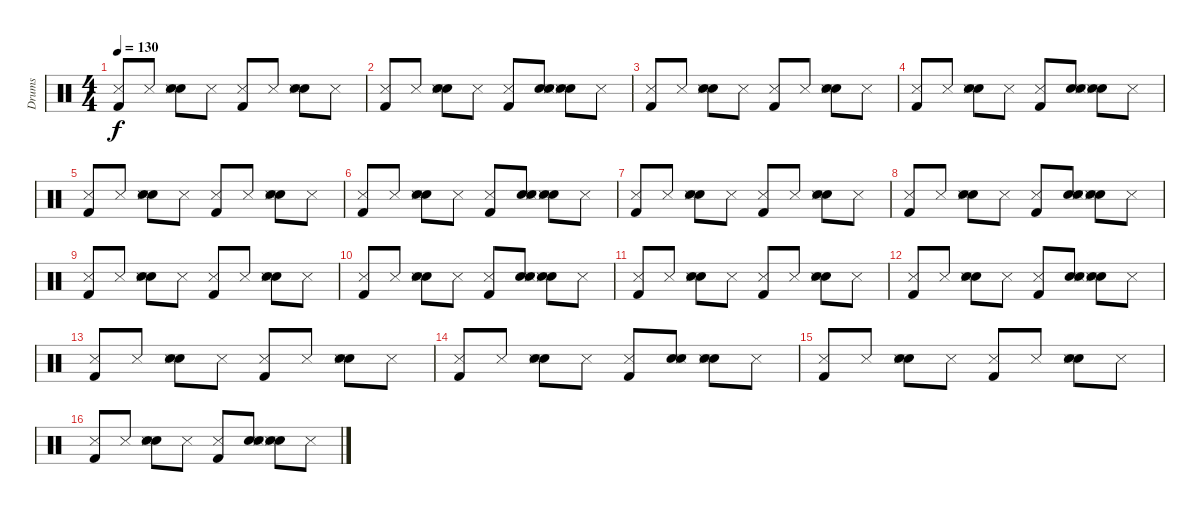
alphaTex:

\track ("Drums" "Drums") {instrument percussion}
\staff {score}
\articulation defaults
\ts (4 4)
\tempo 130
\clef neutral
\ks c
("Snare (side stick) 3" "Kick (hit) 2").8{dy f} "Snare (side stick) 3".8 ("Hand Clap (hit)" "Snare (hit) 2" "Snare (side stick) 3").8 "Snare (side stick) 3".8 ("Snare (side stick) 3" "Kick (hit) 2").8 "Snare (side stick) 3".8 ("Hand Clap (hit)" "Snare (hit) 2" "Snare (side stick) 3").8 "Snare (side stick) 3".8 |
("Snare (side stick) 3" "Kick (hit) 2").8 "Snare (side stick) 3".8 ("Hand Clap (hit)" "Snare (hit) 2" "Snare (side stick) 3").8 "Snare (side stick) 3".8 ("Snare (side stick) 3" "Kick (hit) 2").8 ("Hand Clap (hit)" "Snare (hit) 2" "Snare (side stick) 3").8 ("Hand Clap (hit)" "Snare (hit) 2" "Snare (side stick) 3").8 "Snare (side stick) 3".8 |
("Snare (side stick) 3" "Kick (hit) 2").8 "Snare (side stick) 3".8 ("Hand Clap (hit)" "Snare (hit) 2" "Snare (side stick) 3").8 "Snare (side stick) 3".8 ("Snare (side stick) 3" "Kick (hit) 2").8 "Snare (side stick) 3".8 ("Hand Clap (hit)" "Snare (hit) 2" "Snare (side stick) 3").8 "Snare (side stick) 3".8 |
("Snare (side stick) 3" "Kick (hit) 2").8 "Snare (side stick) 3".8 ("Hand Clap (hit)" "Snare (hit) 2" "Snare (side stick) 3").8 "Snare (side stick) 3".8 ("Snare (side stick) 3" "Kick (hit) 2").8 ("Hand Clap (hit)" "Snare (hit) 2" "Snare (side stick) 3").8 ("Hand Clap (hit)" "Snare (hit) 2" "Snare (side stick) 3").8 "Snare (side stick) 3".8 |
("Snare (side stick) 3" "Kick (hit) 2").8 "Snare (side stick) 3".8 ("Hand Clap (hit)" "Snare (hit) 2" "Snare (side stick) 3").8 "Snare (side stick) 3".8 ("Snare (side stick) 3" "Kick (hit) 2").8 "Snare (side stick) 3".8 ("Hand Clap (hit)" "Snare (hit) 2" "Snare (side stick) 3").8 "Snare (side stick) 3".8 |
("Snare (side stick) 3" "Kick (hit) 2").8 "Snare (side stick) 3".8 ("Hand Clap (hit)" "Snare (hit) 2" "Snare (side stick) 3").8 "Snare (side stick) 3".8 ("Snare (side stick) 3" "Kick (hit) 2").8 ("Hand Clap (hit)" "Snare (hit) 2" "Snare (side stick) 3").8 ("Hand Clap (hit)" "Snare (hit) 2" "Snare (side stick) 3").8 "Snare (side stick) 3".8 |
("Snare (side stick) 3" "Kick (hit) 2").8 "Snare (side stick) 3".8 ("Hand Clap (hit)" "Snare (hit) 2" "Snare (side stick) 3").8 "Snare (side stick) 3".8 ("Snare (side stick) 3" "Kick (hit) 2").8 "Snare (side stick) 3".8 ("Hand Clap (hit)" "Snare (hit) 2" "Snare (side stick) 3").8 "Snare (side stick) 3".8 |
("Snare (side stick) 3" "Kick (hit) 2").8 "Snare (side stick) 3".8 ("Hand Clap (hit)" "Snare (hit) 2" "Snare (side stick) 3").8 "Snare (side stick) 3".8 ("Snare (side stick) 3" "Kick (hit) 2").8 ("Hand Clap (hit)" "Snare (hit) 2" "Snare (side stick) 3").8 ("Hand Clap (hit)" "Snare (hit) 2" "Snare (side stick) 3").8 "Snare (side stick) 3".8 |
("Snare (side stick) 3" "Kick (hit) 2").8 "Snare (side stick) 3".8 ("Hand Clap (hit)" "Snare (hit) 2" "Snare (side stick) 3").8 "Snare (side stick) 3".8 ("Snare (side stick) 3" "Kick (hit) 2").8 "Snare (side stick) 3".8 ("Hand Clap (hit)" "Snare (hit) 2" "Snare (side stick) 3").8 "Snare (side stick) 3".8 |
("Snare (side stick) 3" "Kick (hit) 2").8 "Snare (side stick) 3".8 ("Hand Clap (hit)" "Snare (hit) 2" "Snare (side stick) 3").8 "Snare (side stick) 3".8 ("Snare (side stick) 3" "Kick (hit) 2").8 ("Hand Clap (hit)" "Snare (hit) 2" "Snare (side stick) 3").8 ("Hand Clap (hit)" "Snare (hit) 2" "Snare (side stick) 3").8 "Snare (side stick) 3".8 |
("Snare (side stick) 3" "Kick (hit) 2").8 "Snare (side stick) 3".8 ("Hand Clap (hit)" "Snare (hit) 2" "Snare (side stick) 3").8 "Snare (side stick) 3".8 ("Snare (side stick) 3" "Kick (hit) 2").8 "Snare (side stick) 3".8 ("Hand Clap (hit)" "Snare (hit) 2" "Snare (side stick) 3").8 "Snare (side stick) 3".8 |
("Snare (side stick) 3" "Kick (hit) 2").8 "Snare (side stick) 3".8 ("Hand Clap (hit)" "Snare (hit) 2" "Snare (side stick) 3").8 "Snare (side stick) 3".8 ("Snare (side stick) 3" "Kick (hit) 2").8 ("Hand Clap (hit)" "Snare (hit) 2" "Snare (side stick) 3").8 ("Hand Clap (hit)" "Snare (hit) 2" "Snare (side stick) 3").8 "Snare (side stick) 3".8 |
("Snare (side stick) 3" "Kick (hit) 2").8 "Snare (side stick) 3".8 ("Hand Clap (hit)" "Snare (hit) 2" "Snare (side stick) 3").8 "Snare (side stick) 3".8 ("Snare (side stick) 3" "Kick (hit) 2").8 "Snare (side stick) 3".8 ("Hand Clap (hit)" "Snare (hit) 2" "Snare (side stick) 3").8 "Snare (side stick) 3".8 |
("Snare (side stick) 3" "Kick (hit) 2").8 "Snare (side stick) 3".8 ("Hand Clap (hit)" "Snare (hit) 2" "Snare (side stick) 3").8 "Snare (side stick) 3".8 ("Snare (side stick) 3" "Kick (hit) 2").8 ("Hand Clap (hit)" "Snare (hit) 2" "Snare (side stick) 3").8 ("Hand Clap (hit)" "Snare (hit) 2" "Snare (side stick) 3").8 "Snare (side stick) 3".8 |
("Snare (side stick) 3" "Kick (hit) 2").8 "Snare (side stick) 3".8 ("Hand Clap (hit)" "Snare (hit) 2" "Snare (side stick) 3").8 "Snare (side stick) 3".8 ("Snare (side stick) 3" "Kick (hit) 2").8 "Snare (side stick) 3".8 ("Hand Clap (hit)" "Snare (hit) 2" "Snare (side stick) 3").8 "Snare (side stick) 3".8 |
("Snare (side stick) 3" "Kick (hit) 2").8 "Snare (side stick) 3".8 ("Hand Clap (hit)" "Snare (hit) 2" "Snare (side stick) 3").8 "Snare (side stick) 3".8 ("Snare (side stick) 3" "Kick (hit) 2").8 ("Hand Clap (hit)" "Snare (hit) 2" "Snare (side stick) 3").8 ("Hand Clap (hit)" "Snare (hit) 2" "Snare (side stick) 3").8 "Snare (side stick) 3".8
